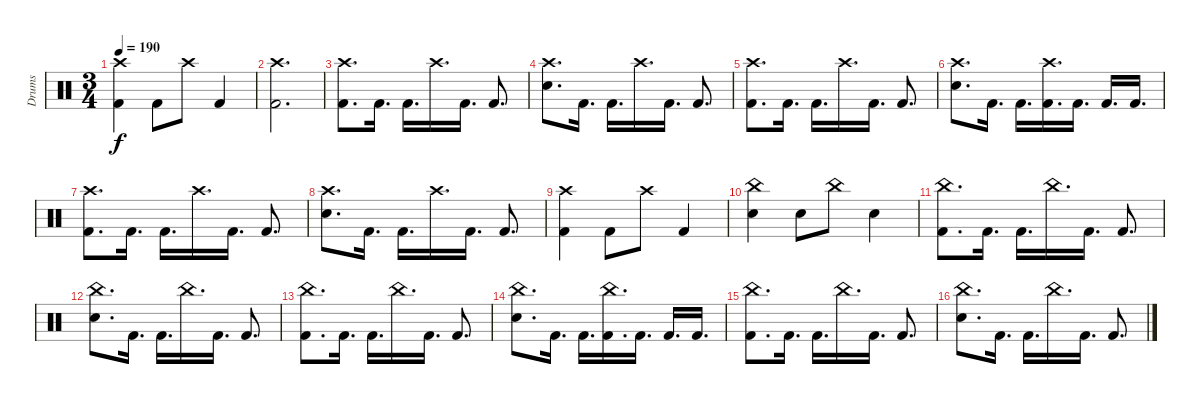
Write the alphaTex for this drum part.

\track ("Drums" "Drums") {instrument percussion}
\staff {score}
\articulation defaults
\ts (3 4)
\tempo 190
\clef neutral
\ks c
("Crash high (hit)" "Kick (hit) 2").4{dy f} "Kick (hit) 2".8 "Crash high (hit)".8 "Kick (hit) 2".4 |
("Crash high (hit)" "Kick (hit) 2").2{d} |
("Crash high (hit)" "Kick (hit) 2").8{d} "Kick (hit) 2".16{d} "Kick (hit) 2".16{d} "Crash high (hit)".16{d} "Kick (hit) 2".16{d} "Kick (hit) 2".8{d} |
("Crash high (hit)" "Snare (hit) 2").8{d} "Kick (hit) 2".16{d} "Kick (hit) 2".16{d} "Crash high (hit)".16{d} "Kick (hit) 2".16{d} "Kick (hit) 2".8{d} |
("Crash high (hit)" "Kick (hit) 2").8{d} "Kick (hit) 2".16{d} "Kick (hit) 2".16{d} "Crash high (hit)".16{d} "Kick (hit) 2".16{d} "Kick (hit) 2".8{d} |
("Crash high (hit)" "Snare (hit) 2").8{d} "Kick (hit) 2".16{d} "Kick (hit) 2".16{d} ("Crash high (hit)" "Kick (hit) 2").16{d} "Kick (hit) 2".16{d} "Kick (hit) 2".16{d} "Kick (hit) 2".16{d} |
("Crash high (hit)" "Kick (hit) 2").8{d} "Kick (hit) 2".16{d} "Kick (hit) 2".16{d} "Crash high (hit)".16{d} "Kick (hit) 2".16{d} "Kick (hit) 2".8{d} |
("Crash high (hit)" "Snare (hit) 2").8{d} "Kick (hit) 2".16{d} "Kick (hit) 2".16{d} "Crash high (hit)".16{d} "Kick (hit) 2".16{d} "Kick (hit) 2".8{d} |
("Crash high (hit)" "Kick (hit) 2").4 "Kick (hit) 2".8 "Crash high (hit)".8 "Kick (hit) 2".4 |
("China (hit)" "Snare (hit) 2").4 "Snare (hit) 2".8 "China (hit)".8 "Snare (hit) 2".4 |
("China (hit)" "Kick (hit) 2").8{d} "Kick (hit) 2".16{d} "Kick (hit) 2".16{d} "China (hit)".16{d} "Kick (hit) 2".16{d} "Kick (hit) 2".8{d} |
("China (hit)" "Snare (hit) 2").8{d} "Kick (hit) 2".16{d} "Kick (hit) 2".16{d} "China (hit)".16{d} "Kick (hit) 2".16{d} "Kick (hit) 2".8{d} |
("China (hit)" "Kick (hit) 2").8{d} "Kick (hit) 2".16{d} "Kick (hit) 2".16{d} "China (hit)".16{d} "Kick (hit) 2".16{d} "Kick (hit) 2".8{d} |
("China (hit)" "Snare (hit) 2").8{d} "Kick (hit) 2".16{d} "Kick (hit) 2".16{d} ("China (hit)" "Kick (hit) 2").16{d} "Kick (hit) 2".16{d} "Kick (hit) 2".16{d} "Kick (hit) 2".16{d} |
("China (hit)" "Kick (hit) 2").8{d} "Kick (hit) 2".16{d} "Kick (hit) 2".16{d} "China (hit)".16{d} "Kick (hit) 2".16{d} "Kick (hit) 2".8{d} |
("China (hit)" "Snare (hit) 2").8{d} "Kick (hit) 2".16{d} "Kick (hit) 2".16{d} "China (hit)".16{d} "Kick (hit) 2".16{d} "Kick (hit) 2".8{d}
